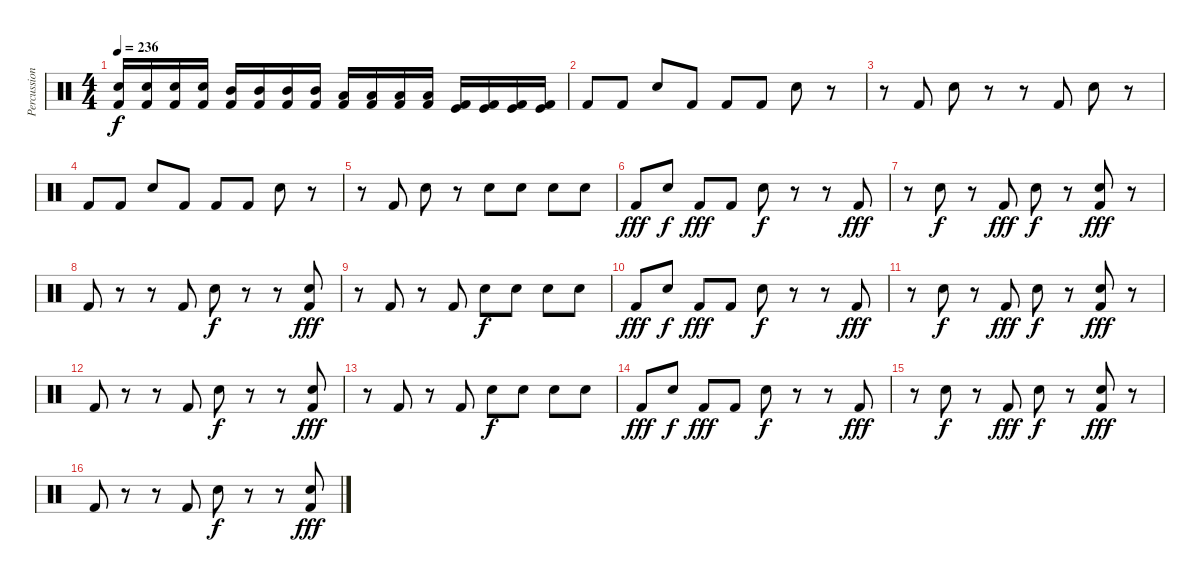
\track ("Percussions" "Percussion") {instrument percussion}
\staff {score}
\articulation defaults
\ts (4 4)
\tempo 236
\clef neutral
\ks c
("Snare (hit) 2" "Kick (hit) 2").16{dy f} ("Snare (hit) 2" "Kick (hit) 2").16 ("Snare (hit) 2" "Kick (hit) 2").16 ("Snare (hit) 2" "Kick (hit) 2").16 ("Mid Tom (hit)" "Kick (hit) 2").16 ("Mid Tom (hit)" "Kick (hit) 2").16 ("Mid Tom (hit)" "Kick (hit) 2").16 ("Mid Tom (hit)" "Kick (hit) 2").16 ("Low Tom (hit)" "Kick (hit) 2").16 ("Low Tom (hit)" "Kick (hit) 2").16 ("Low Tom (hit)" "Kick (hit) 2").16 ("Low Tom (hit)" "Kick (hit) 2").16 ("Kick (hit)" "Kick (hit) 2").16 ("Kick (hit)" "Kick (hit) 2").16 ("Kick (hit)" "Kick (hit) 2").16 ("Kick (hit)" "Kick (hit) 2").16 |
"Kick (hit) 2".8 "Kick (hit) 2".8 "Snare (hit) 2".8 "Kick (hit) 2".8 "Kick (hit) 2".8 "Kick (hit) 2".8 "Snare (hit) 2".8 r.8 |
r.8 "Kick (hit) 2".8 "Snare (hit) 2".8 r.8 r.8 "Kick (hit) 2".8 "Snare (hit) 2".8 r.8 |
"Kick (hit) 2".8 "Kick (hit) 2".8 "Snare (hit) 2".8 "Kick (hit) 2".8 "Kick (hit) 2".8 "Kick (hit) 2".8 "Snare (hit) 2".8 r.8 |
r.8 "Kick (hit) 2".8 "Snare (hit) 2".8 r.8 "Snare (hit) 2".8 "Snare (hit) 2".8 "Snare (hit) 2".8 "Snare (hit) 2".8 |
"Kick (hit) 2".8{dy fff} "Snare (hit) 2".8{dy f} "Kick (hit) 2".8{dy fff} "Kick (hit) 2".8 "Snare (hit) 2".8{dy f} r.8 r.8 "Kick (hit) 2".8{dy fff} |
r.8 "Snare (hit) 2".8{dy f} r.8 "Kick (hit) 2".8{dy fff} "Snare (hit) 2".8{dy f} r.8 ("Snare (hit) 2" "Kick (hit) 2").8{dy fff} r.8 |
"Kick (hit) 2".8 r.8 r.8 "Kick (hit) 2".8 "Snare (hit) 2".8{dy f} r.8 r.8 ("Snare (hit) 2" "Kick (hit) 2").8{dy fff} |
r.8 "Kick (hit) 2".8 r.8 "Kick (hit) 2".8 "Snare (hit) 2".8{dy f} "Snare (hit) 2".8 "Snare (hit) 2".8 "Snare (hit) 2".8 |
"Kick (hit) 2".8{dy fff} "Snare (hit) 2".8{dy f} "Kick (hit) 2".8{dy fff} "Kick (hit) 2".8 "Snare (hit) 2".8{dy f} r.8 r.8 "Kick (hit) 2".8{dy fff} |
r.8 "Snare (hit) 2".8{dy f} r.8 "Kick (hit) 2".8{dy fff} "Snare (hit) 2".8{dy f} r.8 ("Snare (hit) 2" "Kick (hit) 2").8{dy fff} r.8 |
"Kick (hit) 2".8 r.8 r.8 "Kick (hit) 2".8 "Snare (hit) 2".8{dy f} r.8 r.8 ("Snare (hit) 2" "Kick (hit) 2").8{dy fff} |
r.8 "Kick (hit) 2".8 r.8 "Kick (hit) 2".8 "Snare (hit) 2".8{dy f} "Snare (hit) 2".8 "Snare (hit) 2".8 "Snare (hit) 2".8 |
"Kick (hit) 2".8{dy fff} "Snare (hit) 2".8{dy f} "Kick (hit) 2".8{dy fff} "Kick (hit) 2".8 "Snare (hit) 2".8{dy f} r.8 r.8 "Kick (hit) 2".8{dy fff} |
r.8 "Snare (hit) 2".8{dy f} r.8 "Kick (hit) 2".8{dy fff} "Snare (hit) 2".8{dy f} r.8 ("Snare (hit) 2" "Kick (hit) 2").8{dy fff} r.8 |
"Kick (hit) 2".8 r.8 r.8 "Kick (hit) 2".8 "Snare (hit) 2".8{dy f} r.8 r.8 ("Snare (hit) 2" "Kick (hit) 2").8{dy fff}
